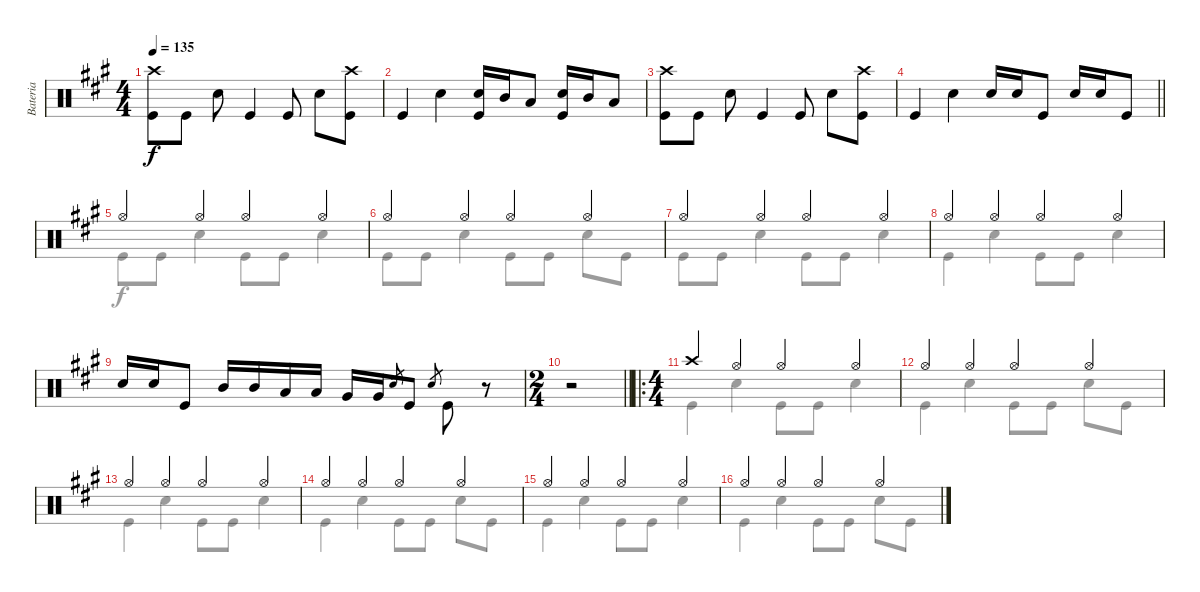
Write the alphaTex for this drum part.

\track ("Bateria" "Bateria") {instrument percussion}
\staff {score}
\articulation defaults
\voice
\ts (4 4)
\tempo 135
\clef neutral
\ks a
("Crash high (hit)" "Kick (hit)").8{dy f} "Kick (hit)".8 "Snare (hit) 2".8 "Kick (hit)".4 "Kick (hit)".8 "Snare (hit) 2".8 ("Crash high (hit)" "Kick (hit)").8 |
"Kick (hit)".4 "Snare (hit) 2".4 ("Snare (hit) 2" "Kick (hit)").16 "Mid Tom (hit)".16 "Low Tom (hit)".8 ("Snare (hit) 2" "Kick (hit)").16 "Mid Tom (hit)".16 "Low Tom (hit)".8 |
("Crash high (hit)" "Kick (hit)").8 "Kick (hit)".8 "Snare (hit) 2".8 "Kick (hit)".4 "Kick (hit)".8 "Snare (hit) 2".8 ("Crash high (hit)" "Kick (hit)").8 |
\barLineRight lightlight "Kick (hit)".4 "Snare (hit) 2".4 "Snare (hit) 2".16 "Snare (hit) 2".16 "Kick (hit)".8 "Snare (hit) 2".16 "Snare (hit) 2".16 "Kick (hit)".8
|
"Hi-Hat (open)".4 "Hi-Hat (open)".4 "Hi-Hat (open)".4 "Hi-Hat (open)".4 |
"Hi-Hat (open)".4 "Hi-Hat (open)".4 "Hi-Hat (open)".4 "Hi-Hat (open)".4 |
"Hi-Hat (open)".4 "Hi-Hat (open)".4 "Hi-Hat (open)".4 "Hi-Hat (open)".4 |
"Hi-Hat (open)".4 "Hi-Hat (open)".4 "Hi-Hat (open)".4 "Hi-Hat (open)".4 |
"Snare (hit) 2".16 "Snare (hit) 2".16 "Kick (hit)".8 "Mid Tom (hit)".16 "Mid Tom (hit)".16 "Low Tom (hit)".16 "Low Tom (hit)".16 "Very Low Tom (hit)".16 "Very Low Tom (hit)".16 "Snare (hit) 2".8{gr} "Kick (hit)".8 "Snare (hit) 2".8{gr} "Kick (hit)".8{beam Down} r.8 |
\ts (2 4)
\barLineRight lightlight
r.2 |
\ro
\ts (4 4)
"Crash high (hit)".4 "Hi-Hat (open)".4 "Hi-Hat (open)".4 "Hi-Hat (open)".4 |
"Hi-Hat (open)".4 "Hi-Hat (open)".4 "Hi-Hat (open)".4 "Hi-Hat (open)".4 |
"Hi-Hat (open)".4 "Hi-Hat (open)".4 "Hi-Hat (open)".4 "Hi-Hat (open)".4 |
"Hi-Hat (open)".4 "Hi-Hat (open)".4 "Hi-Hat (open)".4 "Hi-Hat (open)".4 |
"Hi-Hat (open)".4 "Hi-Hat (open)".4 "Hi-Hat (open)".4 "Hi-Hat (open)".4 |
"Hi-Hat (open)".4 "Hi-Hat (open)".4 "Hi-Hat (open)".4 "Hi-Hat (open)".4
\voice
\clef neutral
\ottava regular
\simile none
\ks a
|
|
|
\barLineRight lightlight
|
"Kick (hit)".8 "Kick (hit)".8 "Snare (hit) 2".4 "Kick (hit)".8 "Kick (hit)".8 "Snare (hit) 2".4 |
"Kick (hit)".8 "Kick (hit)".8 "Snare (hit) 2".4 "Kick (hit)".8 "Kick (hit)".8 "Snare (hit) 2".8 "Kick (hit)".8 |
"Kick (hit)".8 "Kick (hit)".8 "Snare (hit) 2".4 "Kick (hit)".8 "Kick (hit)".8 "Snare (hit) 2".4 |
"Kick (hit)".4 "Snare (hit) 2".4 "Kick (hit)".8 "Kick (hit)".8 "Snare (hit) 2".4 |
|
\barLineRight lightlight
|
"Kick (hit)".4 "Snare (hit) 2".4 "Kick (hit)".8 "Kick (hit)".8 "Snare (hit) 2".4 |
"Kick (hit)".4 "Snare (hit) 2".4 "Kick (hit)".8 "Kick (hit)".8 "Snare (hit) 2".8 "Kick (hit)".8 |
"Kick (hit)".4 "Snare (hit) 2".4 "Kick (hit)".8 "Kick (hit)".8 "Snare (hit) 2".4 |
"Kick (hit)".4 "Snare (hit) 2".4 "Kick (hit)".8 "Kick (hit)".8 "Snare (hit) 2".8 "Kick (hit)".8 |
"Kick (hit)".4 "Snare (hit) 2".4 "Kick (hit)".8 "Kick (hit)".8 "Snare (hit) 2".4 |
"Kick (hit)".4 "Snare (hit) 2".4 "Kick (hit)".8 "Kick (hit)".8 "Snare (hit) 2".8 "Kick (hit)".8
